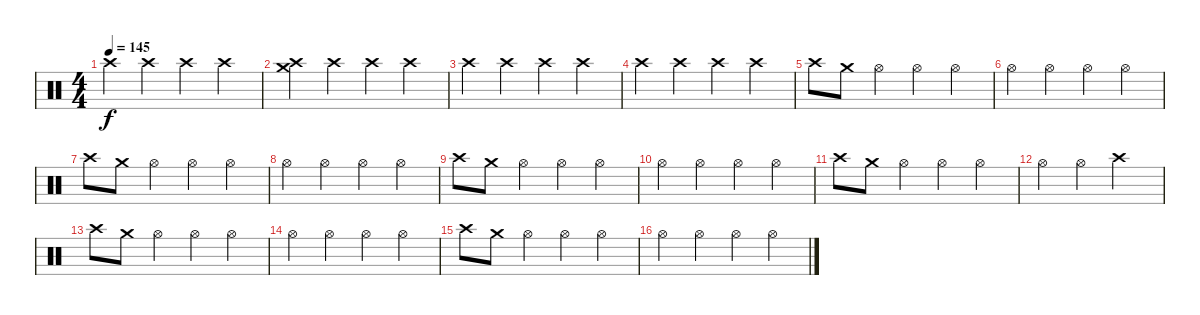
\track "" {instrument percussion}
\staff {score}
\articulation defaults
\ts (4 4)
\tempo 145
\clef neutral
\ks c "Crash high (hit)".4{dy f} "Crash high (hit)".4 "Crash high (hit)".4 "Crash high (hit)".4
|
("Crash medium (hit)" "Crash high (hit)").4 "Crash high (hit)".4 "Crash high (hit)".4 "Crash high (hit)".4 |
"Crash high (hit)".4 "Crash high (hit)".4 "Crash high (hit)".4 "Crash high (hit)".4 |
"Crash high (hit)".4 "Crash high (hit)".4 "Crash high (hit)".4 "Crash high (hit)".4 |
"Crash high (hit)".8 "Crash medium (hit)".8 "Hi-Hat (open)".4 "Hi-Hat (open)".4 "Hi-Hat (open)".4 |
"Hi-Hat (open)".4 "Hi-Hat (open)".4 "Hi-Hat (open)".4 "Hi-Hat (open)".4 |
"Crash high (hit)".8 "Crash medium (hit)".8 "Hi-Hat (open)".4 "Hi-Hat (open)".4 "Hi-Hat (open)".4 |
"Hi-Hat (open)".4 "Hi-Hat (open)".4 "Hi-Hat (open)".4 "Hi-Hat (open)".4 |
"Crash high (hit)".8 "Crash medium (hit)".8 "Hi-Hat (open)".4 "Hi-Hat (open)".4 "Hi-Hat (open)".4 |
"Hi-Hat (open)".4 "Hi-Hat (open)".4 "Hi-Hat (open)".4 "Hi-Hat (open)".4 |
"Crash high (hit)".8 "Crash medium (hit)".8 "Hi-Hat (open)".4 "Hi-Hat (open)".4 "Hi-Hat (open)".4 |
"Hi-Hat (open)".4 "Hi-Hat (open)".4 "Crash high (hit)".2 |
"Crash high (hit)".8 "Crash medium (hit)".8 "Hi-Hat (open)".4 "Hi-Hat (open)".4 "Hi-Hat (open)".4 |
"Hi-Hat (open)".4 "Hi-Hat (open)".4 "Hi-Hat (open)".4 "Hi-Hat (open)".4 |
"Crash high (hit)".8 "Crash medium (hit)".8 "Hi-Hat (open)".4 "Hi-Hat (open)".4 "Hi-Hat (open)".4 |
"Hi-Hat (open)".4 "Hi-Hat (open)".4 "Hi-Hat (open)".4 "Hi-Hat (open)".4
